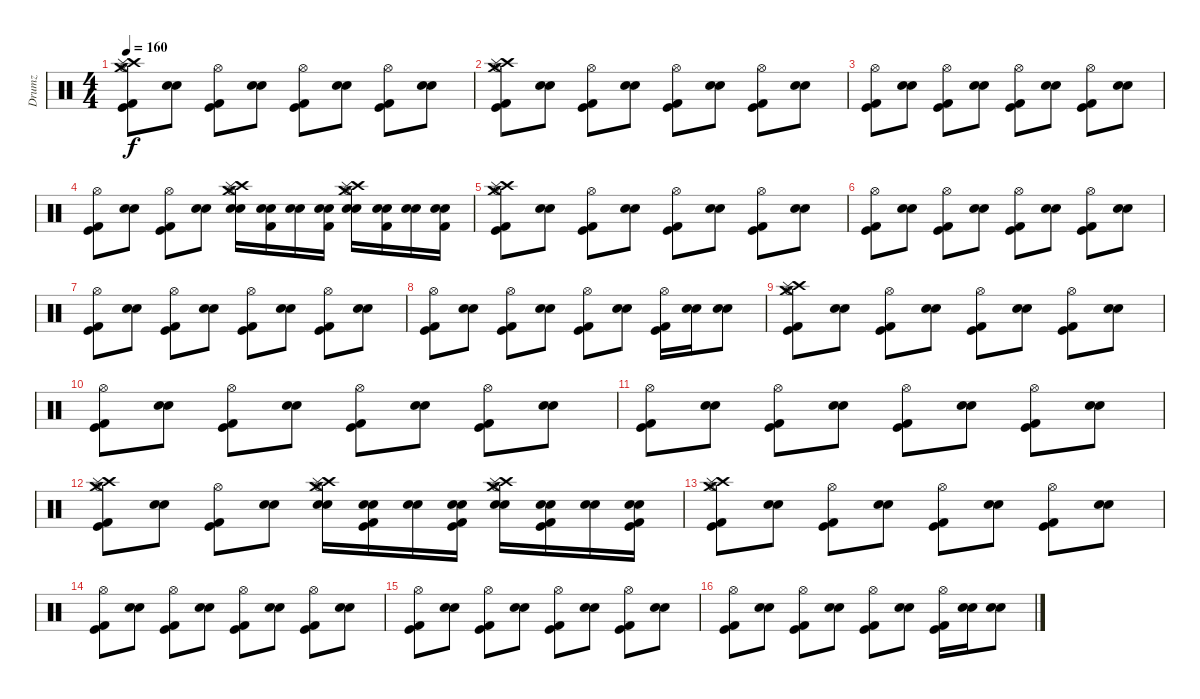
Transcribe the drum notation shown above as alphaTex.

\track ("Drumz" "Drumz") {instrument percussion}
\staff {score}
\articulation defaults
\ts (4 4)
\tempo 160
\clef neutral
\ks c
("Kick (hit)" "Kick (hit) 2" "Hi-Hat (open)" "Crash high (hit)" "Crash medium (hit)" "Splash (hit)").8{dy f} ("Electric Snare (hit)" "Snare (hit) 2").8 ("Kick (hit) 2" "Kick (hit)" "Hi-Hat (open)").8 ("Snare (hit) 2" "Electric Snare (hit)").8 ("Kick (hit) 2" "Kick (hit)" "Hi-Hat (open)").8 ("Electric Snare (hit)" "Snare (hit) 2").8 ("Kick (hit)" "Kick (hit) 2" "Hi-Hat (open)").8 ("Snare (hit) 2" "Electric Snare (hit)").8 |
("Kick (hit)" "Kick (hit) 2" "Hi-Hat (open)" "Crash high (hit)" "Splash (hit)" "Crash medium (hit)").8 ("Electric Snare (hit)" "Snare (hit) 2").8 ("Kick (hit) 2" "Kick (hit)" "Hi-Hat (open)").8 ("Snare (hit) 2" "Electric Snare (hit)").8 ("Kick (hit) 2" "Kick (hit)" "Hi-Hat (open)").8 ("Electric Snare (hit)" "Snare (hit) 2").8 ("Kick (hit)" "Kick (hit) 2" "Hi-Hat (open)").8 ("Snare (hit) 2" "Electric Snare (hit)").8 |
("Kick (hit)" "Kick (hit) 2" "Hi-Hat (open)").8 ("Electric Snare (hit)" "Snare (hit) 2").8 ("Kick (hit) 2" "Kick (hit)" "Hi-Hat (open)").8 ("Snare (hit) 2" "Electric Snare (hit)").8 ("Kick (hit) 2" "Kick (hit)" "Hi-Hat (open)").8 ("Electric Snare (hit)" "Snare (hit) 2").8 ("Kick (hit)" "Kick (hit) 2" "Hi-Hat (open)").8 ("Snare (hit) 2" "Electric Snare (hit)").8 |
("Kick (hit)" "Kick (hit) 2" "Hi-Hat (open)").8 ("Electric Snare (hit)" "Snare (hit) 2").8 ("Kick (hit) 2" "Kick (hit)" "Hi-Hat (open)").8 ("Snare (hit) 2" "Electric Snare (hit)").8 ("Hi-Hat (open)" "Crash high (hit)" "Electric Snare (hit)" "Snare (hit) 2" "Crash medium (hit)" "Splash (hit)").16 ("Snare (hit) 2" "Electric Snare (hit)" "Kick (hit) 2").16 ("Electric Snare (hit)" "Snare (hit) 2").16 ("Electric Snare (hit)" "Snare (hit) 2" "Kick (hit) 2").16 ("Hi-Hat (open)" "Crash high (hit)" "Electric Snare (hit)" "Snare (hit) 2" "Splash (hit)" "Crash medium (hit)").16 ("Electric Snare (hit)" "Snare (hit) 2" "Kick (hit) 2").16 ("Electric Snare (hit)" "Snare (hit) 2").16 ("Electric Snare (hit)" "Snare (hit) 2" "Kick (hit) 2").16 |
("Kick (hit)" "Kick (hit) 2" "Hi-Hat (open)" "Crash high (hit)" "Crash medium (hit)" "Splash (hit)").8{volume 12} ("Electric Snare (hit)" "Snare (hit) 2").8 ("Kick (hit) 2" "Kick (hit)" "Hi-Hat (open)").8 ("Snare (hit) 2" "Electric Snare (hit)").8 ("Kick (hit) 2" "Kick (hit)" "Hi-Hat (open)").8 ("Electric Snare (hit)" "Snare (hit) 2").8 ("Kick (hit)" "Kick (hit) 2" "Hi-Hat (open)").8 ("Snare (hit) 2" "Electric Snare (hit)").8 |
("Kick (hit)" "Kick (hit) 2" "Hi-Hat (open)").8 ("Electric Snare (hit)" "Snare (hit) 2").8 ("Kick (hit) 2" "Kick (hit)" "Hi-Hat (open)").8 ("Snare (hit) 2" "Electric Snare (hit)").8 ("Kick (hit) 2" "Kick (hit)" "Hi-Hat (open)").8 ("Electric Snare (hit)" "Snare (hit) 2").8 ("Kick (hit)" "Kick (hit) 2" "Hi-Hat (open)").8 ("Snare (hit) 2" "Electric Snare (hit)").8 |
("Kick (hit)" "Kick (hit) 2" "Hi-Hat (open)").8 ("Electric Snare (hit)" "Snare (hit) 2").8 ("Kick (hit) 2" "Kick (hit)" "Hi-Hat (open)").8 ("Snare (hit) 2" "Electric Snare (hit)").8 ("Kick (hit) 2" "Kick (hit)" "Hi-Hat (open)").8 ("Electric Snare (hit)" "Snare (hit) 2").8 ("Kick (hit)" "Kick (hit) 2" "Hi-Hat (open)").8 ("Snare (hit) 2" "Electric Snare (hit)").8 |
("Kick (hit)" "Kick (hit) 2" "Hi-Hat (open)").8 ("Electric Snare (hit)" "Snare (hit) 2").8 ("Kick (hit) 2" "Kick (hit)" "Hi-Hat (open)").8 ("Snare (hit) 2" "Electric Snare (hit)").8 ("Kick (hit) 2" "Kick (hit)" "Hi-Hat (open)").8 ("Electric Snare (hit)" "Snare (hit) 2").8 ("Kick (hit)" "Kick (hit) 2" "Hi-Hat (open)").16 ("Snare (hit) 2" "Electric Snare (hit)").16 ("Snare (hit) 2" "Electric Snare (hit)").8 |
("Kick (hit)" "Kick (hit) 2" "Hi-Hat (open)" "Crash high (hit)" "Crash medium (hit)" "Splash (hit)").8{volume 12} ("Electric Snare (hit)" "Snare (hit) 2").8 ("Kick (hit) 2" "Kick (hit)" "Hi-Hat (open)").8 ("Snare (hit) 2" "Electric Snare (hit)").8 ("Kick (hit) 2" "Kick (hit)" "Hi-Hat (open)").8 ("Electric Snare (hit)" "Snare (hit) 2").8 ("Kick (hit)" "Kick (hit) 2" "Hi-Hat (open)").8 ("Snare (hit) 2" "Electric Snare (hit)").8 |
("Kick (hit)" "Kick (hit) 2" "Hi-Hat (open)").8 ("Electric Snare (hit)" "Snare (hit) 2").8 ("Kick (hit) 2" "Kick (hit)" "Hi-Hat (open)").8 ("Snare (hit) 2" "Electric Snare (hit)").8 ("Kick (hit) 2" "Kick (hit)" "Hi-Hat (open)").8 ("Electric Snare (hit)" "Snare (hit) 2").8 ("Kick (hit)" "Kick (hit) 2" "Hi-Hat (open)").8 ("Snare (hit) 2" "Electric Snare (hit)").8 |
("Kick (hit)" "Kick (hit) 2" "Hi-Hat (open)").8 ("Electric Snare (hit)" "Snare (hit) 2").8 ("Kick (hit) 2" "Kick (hit)" "Hi-Hat (open)").8 ("Snare (hit) 2" "Electric Snare (hit)").8 ("Kick (hit) 2" "Kick (hit)" "Hi-Hat (open)").8 ("Electric Snare (hit)" "Snare (hit) 2").8 ("Kick (hit)" "Kick (hit) 2" "Hi-Hat (open)").8 ("Snare (hit) 2" "Electric Snare (hit)").8 |
("Kick (hit)" "Kick (hit) 2" "Hi-Hat (open)" "Crash high (hit)" "Splash (hit)" "Crash medium (hit)").8 ("Electric Snare (hit)" "Snare (hit) 2").8 ("Kick (hit) 2" "Kick (hit)" "Hi-Hat (open)").8 ("Snare (hit) 2" "Electric Snare (hit)").8 ("Crash medium (hit)" "Electric Snare (hit)" "Hi-Hat (open)" "Crash high (hit)" "Splash (hit)" "Snare (hit) 2").16 ("Kick (hit) 2" "Kick (hit)" "Electric Snare (hit)" "Snare (hit) 2").16 ("Electric Snare (hit)" "Snare (hit) 2").16 ("Snare (hit) 2" "Electric Snare (hit)" "Kick (hit) 2" "Kick (hit)").16 ("Crash medium (hit)" "Snare (hit) 2" "Hi-Hat (open)" "Crash high (hit)" "Splash (hit)" "Electric Snare (hit)").16 ("Kick (hit)" "Kick (hit) 2" "Snare (hit) 2" "Electric Snare (hit)").16 ("Snare (hit) 2" "Electric Snare (hit)").16 ("Electric Snare (hit)" "Snare (hit) 2" "Kick (hit) 2" "Kick (hit)").16 |
("Kick (hit)" "Kick (hit) 2" "Hi-Hat (open)" "Crash high (hit)" "Crash medium (hit)" "Splash (hit)").8{volume 12} ("Electric Snare (hit)" "Snare (hit) 2").8 ("Kick (hit) 2" "Kick (hit)" "Hi-Hat (open)").8 ("Snare (hit) 2" "Electric Snare (hit)").8 ("Kick (hit) 2" "Kick (hit)" "Hi-Hat (open)").8 ("Electric Snare (hit)" "Snare (hit) 2").8 ("Kick (hit)" "Kick (hit) 2" "Hi-Hat (open)").8 ("Snare (hit) 2" "Electric Snare (hit)").8 |
("Kick (hit)" "Kick (hit) 2" "Hi-Hat (open)").8 ("Electric Snare (hit)" "Snare (hit) 2").8 ("Kick (hit) 2" "Kick (hit)" "Hi-Hat (open)").8 ("Snare (hit) 2" "Electric Snare (hit)").8 ("Kick (hit) 2" "Kick (hit)" "Hi-Hat (open)").8 ("Electric Snare (hit)" "Snare (hit) 2").8 ("Kick (hit)" "Kick (hit) 2" "Hi-Hat (open)").8 ("Snare (hit) 2" "Electric Snare (hit)").8 |
("Kick (hit)" "Kick (hit) 2" "Hi-Hat (open)").8 ("Electric Snare (hit)" "Snare (hit) 2").8 ("Kick (hit) 2" "Kick (hit)" "Hi-Hat (open)").8 ("Snare (hit) 2" "Electric Snare (hit)").8 ("Kick (hit) 2" "Kick (hit)" "Hi-Hat (open)").8 ("Electric Snare (hit)" "Snare (hit) 2").8 ("Kick (hit)" "Kick (hit) 2" "Hi-Hat (open)").8 ("Snare (hit) 2" "Electric Snare (hit)").8 |
("Kick (hit)" "Kick (hit) 2" "Hi-Hat (open)").8 ("Electric Snare (hit)" "Snare (hit) 2").8 ("Kick (hit) 2" "Kick (hit)" "Hi-Hat (open)").8 ("Snare (hit) 2" "Electric Snare (hit)").8 ("Kick (hit) 2" "Kick (hit)" "Hi-Hat (open)").8 ("Electric Snare (hit)" "Snare (hit) 2").8 ("Kick (hit)" "Kick (hit) 2" "Hi-Hat (open)").16 ("Snare (hit) 2" "Electric Snare (hit)").16 ("Snare (hit) 2" "Electric Snare (hit)").8
